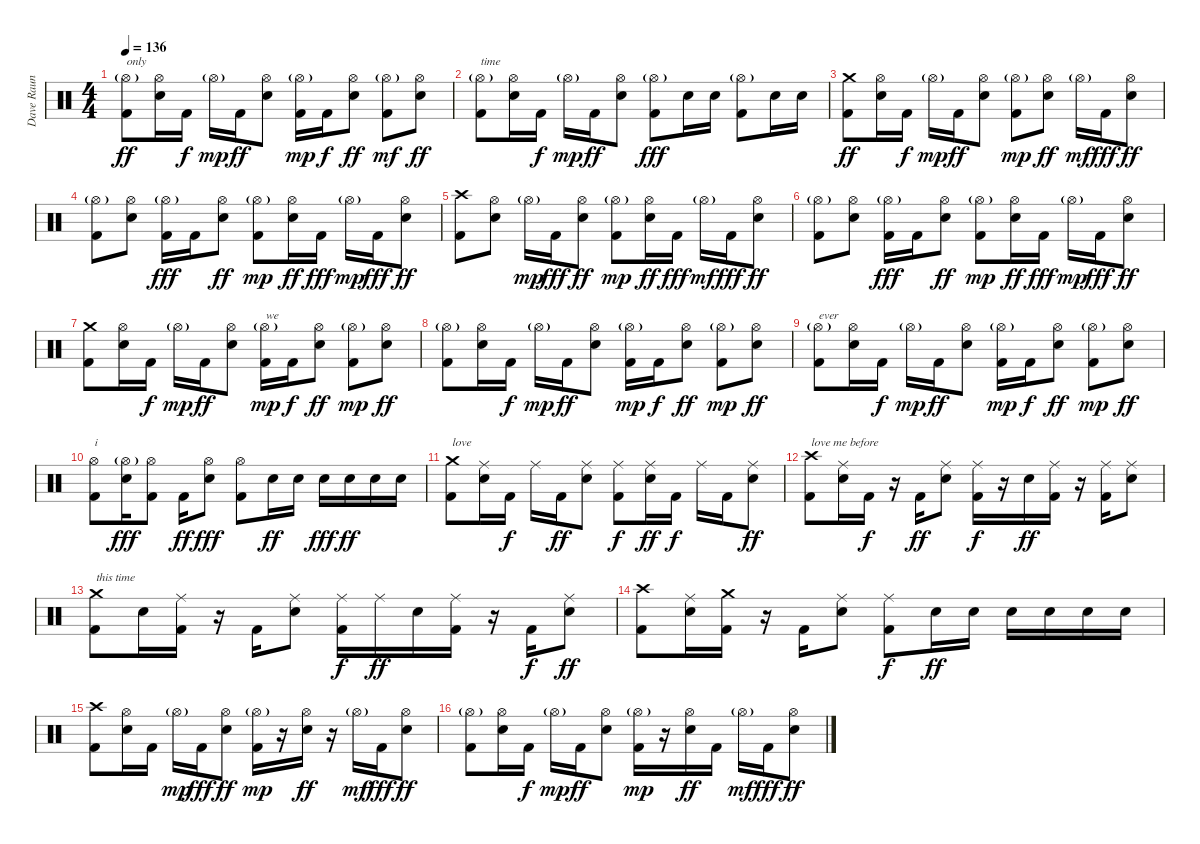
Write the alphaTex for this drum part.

\track ("Dave Raun" "Dave Raun") {instrument percussion}
\staff {score}
\articulation defaults
\ts (4 4)
\tempo 136
\clef neutral
\ks c
("Hi-Hat (open)"{g} "Kick (hit) 2").8{txt "only" dy ff} ("Hi-Hat (open)" "Electric Snare (hit)").16 "Kick (hit) 2".16{dy f} "Hi-Hat (open)"{g}.16{dy mp} "Kick (hit) 2".16{dy ff} ("Hi-Hat (open)" "Electric Snare (hit)").8 ("Hi-Hat (open)"{g} "Kick (hit) 2").16{dy mp} "Kick (hit) 2".16{dy f} ("Hi-Hat (open)" "Electric Snare (hit)").8{dy ff} ("Hi-Hat (open)"{g} "Kick (hit) 2").8{dy mf} ("Hi-Hat (open)" "Electric Snare (hit)").8{dy ff} |
("Hi-Hat (open)"{g} "Kick (hit) 2").8{txt "time"} ("Hi-Hat (open)" "Electric Snare (hit)").16 "Kick (hit) 2".16{dy f} "Hi-Hat (open)"{g}.16{dy mp} "Kick (hit) 2".16{dy ff} ("Hi-Hat (open)" "Electric Snare (hit)").8 ("Hi-Hat (open)"{g} "Kick (hit) 2").8{dy fff} "Electric Snare (hit)".16 "Electric Snare (hit)".16 ("Hi-Hat (open)"{g} "Kick (hit) 2").8 "Electric Snare (hit)".16 "Electric Snare (hit)".16 |
("Crash medium (hit)" "Kick (hit) 2").8{dy ff} ("Hi-Hat (open)" "Electric Snare (hit)").16 "Kick (hit) 2".16{dy f} "Hi-Hat (open)"{g}.16{dy mp} "Kick (hit) 2".16{dy ff} ("Hi-Hat (open)" "Electric Snare (hit)").8 ("Hi-Hat (open)"{g} "Kick (hit) 2").8{dy mp} ("Hi-Hat (open)" "Electric Snare (hit)").8{dy ff} "Hi-Hat (open)"{g}.16{dy mf} "Kick (hit) 2".16{dy fff} ("Hi-Hat (open)" "Electric Snare (hit)").8{dy ff} |
("Hi-Hat (open)"{g} "Kick (hit) 2").8 ("Hi-Hat (open)" "Electric Snare (hit)").8 ("Hi-Hat (open)"{g} "Kick (hit) 2").16{dy fff} "Kick (hit) 2".16 ("Hi-Hat (open)" "Electric Snare (hit)").8{dy ff} ("Hi-Hat (open)"{g} "Kick (hit) 2").8{dy mp} ("Hi-Hat (open)" "Electric Snare (hit)").16{dy ff} "Kick (hit) 2".16{dy fff} "Hi-Hat (open)"{g}.16{dy mp} "Kick (hit) 2".16{dy fff} ("Hi-Hat (open)" "Electric Snare (hit)").8{dy ff} |
("Crash high (hit)" "Kick (hit) 2").8 ("Hi-Hat (open)" "Electric Snare (hit)").8 "Hi-Hat (open)"{g}.16{dy mp} "Kick (hit) 2".16{dy fff} ("Hi-Hat (open)" "Electric Snare (hit)").8{dy ff} ("Hi-Hat (open)"{g} "Kick (hit) 2").8{dy mp} ("Hi-Hat (open)" "Electric Snare (hit)").16{dy ff} "Kick (hit) 2".16{dy fff} "Hi-Hat (open)"{g}.16{dy mf} "Kick (hit) 2".16{dy fff} ("Hi-Hat (open)" "Electric Snare (hit)").8{dy ff} |
("Hi-Hat (open)"{g} "Kick (hit) 2").8 ("Hi-Hat (open)" "Electric Snare (hit)").8 ("Hi-Hat (open)"{g} "Kick (hit) 2").16{dy fff} "Kick (hit) 2".16 ("Hi-Hat (open)" "Electric Snare (hit)").8{dy ff} ("Hi-Hat (open)"{g} "Kick (hit) 2").8{dy mp} ("Hi-Hat (open)" "Electric Snare (hit)").16{dy ff} "Kick (hit) 2".16{dy fff} "Hi-Hat (open)"{g}.16{dy mp} "Kick (hit) 2".16{dy fff} ("Hi-Hat (open)" "Electric Snare (hit)").8{dy ff} |
("Crash medium (hit)" "Kick (hit) 2").8 ("Hi-Hat (open)" "Electric Snare (hit)").16 "Kick (hit) 2".16{dy f} "Hi-Hat (open)"{g}.16{dy mp} "Kick (hit) 2".16{dy ff} ("Hi-Hat (open)" "Electric Snare (hit)").8 ("Hi-Hat (open)"{g} "Kick (hit) 2").16{txt "we" dy mp} "Kick (hit) 2".16{dy f} ("Hi-Hat (open)" "Electric Snare (hit)").8{dy ff} ("Hi-Hat (open)"{g} "Kick (hit) 2").8{dy mp} ("Hi-Hat (open)" "Electric Snare (hit)").8{dy ff} |
("Hi-Hat (open)"{g} "Kick (hit) 2").8 ("Hi-Hat (open)" "Electric Snare (hit)").16 "Kick (hit) 2".16{dy f} "Hi-Hat (open)"{g}.16{dy mp} "Kick (hit) 2".16{dy ff} ("Hi-Hat (open)" "Electric Snare (hit)").8 ("Hi-Hat (open)"{g} "Kick (hit) 2").16{dy mp} "Kick (hit) 2".16{dy f} ("Hi-Hat (open)" "Electric Snare (hit)").8{dy ff} ("Hi-Hat (open)"{g} "Kick (hit) 2").8{dy mp} ("Hi-Hat (open)" "Electric Snare (hit)").8{dy ff} |
("Hi-Hat (open)"{g} "Kick (hit) 2").8{txt "ever"} ("Hi-Hat (open)" "Electric Snare (hit)").16 "Kick (hit) 2".16{dy f} "Hi-Hat (open)"{g}.16{dy mp} "Kick (hit) 2".16{dy ff} ("Hi-Hat (open)" "Electric Snare (hit)").8 ("Hi-Hat (open)"{g} "Kick (hit) 2").16{dy mp} "Kick (hit) 2".16{dy f} ("Hi-Hat (open)" "Electric Snare (hit)").8{dy ff} ("Hi-Hat (open)"{g} "Kick (hit) 2").8{dy mp} ("Hi-Hat (open)" "Electric Snare (hit)").8{dy ff} |
("Hi-Hat (open)" "Kick (hit) 2").8{txt "i"} ("Hi-Hat (open)"{g} "Electric Snare (hit)").16{dy fff} ("Hi-Hat (open)" "Kick (hit) 2").8 "Kick (hit) 2".16{dy ff} ("Hi-Hat (open)" "Electric Snare (hit)").8{dy fff} ("Hi-Hat (open)" "Kick (hit) 2").8 "Electric Snare (hit)".16{dy ff} "Electric Snare (hit)".16 "Electric Snare (hit)".16{dy fff} "Electric Snare (hit)".16{dy ff} "Electric Snare (hit)".16 "Electric Snare (hit)".16 |
("Crash medium (hit)" "Kick (hit) 2").8{txt "love"} ("Ride (middle)" "Electric Snare (hit)").16 "Kick (hit) 2".16{dy f} "Ride (middle)".16 "Kick (hit) 2".16{dy ff} ("Ride (middle)" "Electric Snare (hit)").8 ("Ride (middle)" "Kick (hit) 2").8{dy f} ("Ride (middle)" "Electric Snare (hit)").16{dy ff} "Kick (hit) 2".16{dy f} "Ride (middle)".16 "Kick (hit) 2".16 ("Ride (middle)" "Electric Snare (hit)").8{dy ff} |
("Crash high (hit)" "Kick (hit) 2").8{txt "love me before"} ("Ride (middle)" "Electric Snare (hit)").16 "Kick (hit) 2".16{dy f} r.16 "Kick (hit) 2".16{dy ff} ("Ride (middle)" "Electric Snare (hit)").8 ("Ride (middle)" "Kick (hit) 2").16{dy f} r.16 "Electric Snare (hit)".16{dy ff} ("Ride (middle)" "Kick (hit) 2").16 r.16 ("Ride (middle)" "Kick (hit) 2").16 ("Ride (middle)" "Electric Snare (hit)").8 |
("Crash medium (hit)" "Kick (hit) 2").8{txt "this time"} "Electric Snare (hit)".16 ("Ride (middle)" "Kick (hit) 2").16 r.16 "Kick (hit) 2".16 ("Ride (middle)" "Electric Snare (hit)").8 ("Ride (middle)" "Kick (hit) 2").16{dy f} "Ride (middle)".16{dy ff} "Electric Snare (hit)".16 ("Ride (middle)" "Kick (hit) 2").16 r.16 "Kick (hit) 2".16{dy f} ("Ride (middle)" "Electric Snare (hit)").8{dy ff} |
("Crash high (hit)" "Kick (hit) 2").8 ("Ride (middle)" "Electric Snare (hit)").16 ("Crash medium (hit)" "Kick (hit) 2").16 r.16 "Kick (hit) 2".16 ("Ride (middle)" "Electric Snare (hit)").8 ("Ride (middle)" "Kick (hit) 2").8{dy f} "Electric Snare (hit)".16{dy ff} "Electric Snare (hit)".16 "Electric Snare (hit)".16 "Electric Snare (hit)".16 "Electric Snare (hit)".16 "Electric Snare (hit)".16 |
("Crash high (hit)" "Kick (hit) 2").8 ("Hi-Hat (open)" "Electric Snare (hit)").16 "Kick (hit) 2".16 "Hi-Hat (open)"{g}.16{dy mp} "Kick (hit) 2".16{dy fff} ("Hi-Hat (open)" "Electric Snare (hit)").8{dy ff} ("Hi-Hat (open)"{g} "Kick (hit) 2").16{dy mp} r.16 ("Hi-Hat (open)" "Electric Snare (hit)").16{dy ff} r.16 "Hi-Hat (open)"{g}.16{dy mf} "Kick (hit) 2".16{dy fff} ("Hi-Hat (open)" "Electric Snare (hit)").8{dy ff} |
("Hi-Hat (open)"{g} "Kick (hit) 2").8 ("Hi-Hat (open)" "Electric Snare (hit)").16 "Kick (hit) 2".16{dy f} "Hi-Hat (open)"{g}.16{dy mp} "Kick (hit) 2".16{dy ff} ("Hi-Hat (open)" "Electric Snare (hit)").8 ("Hi-Hat (open)"{g} "Kick (hit) 2").16{dy mp} r.16 ("Hi-Hat (open)" "Electric Snare (hit)").16{dy ff} "Kick (hit) 2".16 "Hi-Hat (open)"{g}.16{dy mf} "Kick (hit) 2".16{dy fff} ("Hi-Hat (open)" "Electric Snare (hit)").8{dy ff}
